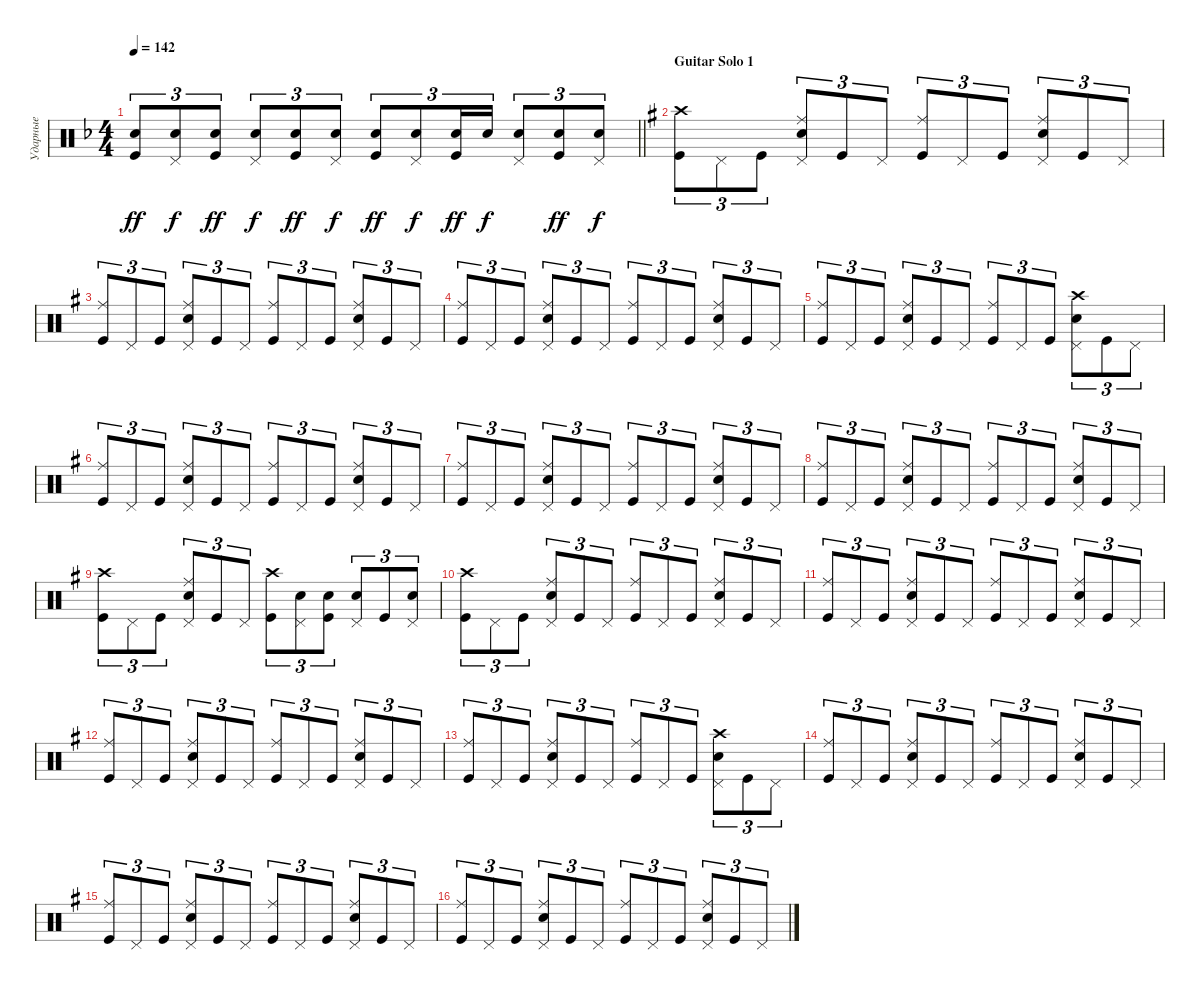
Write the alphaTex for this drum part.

\track ("Ударные" "Ударные") {instrument percussion}
\staff {score}
\articulation defaults
\ts (4 4)
\tempo 142
\clef neutral
\barLineRight lightlight
\ks dminor
("Kick (hit)" "Snare (hit) 2").8{tu (3 2) dy ff} ("Snare (hit) 2" "Pedal Hi-Hat (hit)").8{tu (3 2) dy f} ("Snare (hit) 2" "Kick (hit)").8{tu (3 2) dy ff} ("Snare (hit) 2" "Pedal Hi-Hat (hit)").8{tu (3 2) dy f} ("Snare (hit) 2" "Kick (hit)").8{tu (3 2) dy ff} ("Snare (hit) 2" "Pedal Hi-Hat (hit)").8{tu (3 2) dy f} ("Kick (hit)" "Snare (hit) 2").8{tu (3 2) dy ff} ("Snare (hit) 2" "Pedal Hi-Hat (hit)").8{tu (3 2) dy f} ("Snare (hit) 2" "Kick (hit)").16{tu (3 2) dy ff} "Snare (hit) 2".16{tu (3 2) dy f} ("Snare (hit) 2" "Pedal Hi-Hat (hit)").8{tu (3 2)} ("Snare (hit) 2" "Kick (hit)").8{tu (3 2) dy ff} ("Snare (hit) 2" "Pedal Hi-Hat (hit)").8{tu (3 2) dy f} |
\section ("" "Guitar Solo 1")
\ks eminor
("Kick (hit)" "Crash high (hit)").8{tu (3 2)} "Pedal Hi-Hat (hit)".8{tu (3 2)} "Kick (hit)".8{tu (3 2)} ("Snare (hit) 2" "Ride (middle)" "Pedal Hi-Hat (hit)").8{tu (3 2)} "Kick (hit)".8{tu (3 2)} "Pedal Hi-Hat (hit)".8{tu (3 2)} ("Kick (hit)" "Ride (middle)").8{tu (3 2)} "Pedal Hi-Hat (hit)".8{tu (3 2)} "Kick (hit)".8{tu (3 2)} ("Snare (hit) 2" "Ride (middle)" "Pedal Hi-Hat (hit)").8{tu (3 2)} "Kick (hit)".8{tu (3 2)} "Pedal Hi-Hat (hit)".8{tu (3 2)} |
("Kick (hit)" "Ride (middle)").8{tu (3 2)} "Pedal Hi-Hat (hit)".8{tu (3 2)} "Kick (hit)".8{tu (3 2)} ("Snare (hit) 2" "Ride (middle)" "Pedal Hi-Hat (hit)").8{tu (3 2)} "Kick (hit)".8{tu (3 2)} "Pedal Hi-Hat (hit)".8{tu (3 2)} ("Kick (hit)" "Ride (middle)").8{tu (3 2)} "Pedal Hi-Hat (hit)".8{tu (3 2)} "Kick (hit)".8{tu (3 2)} ("Snare (hit) 2" "Ride (middle)" "Pedal Hi-Hat (hit)").8{tu (3 2)} "Kick (hit)".8{tu (3 2)} "Pedal Hi-Hat (hit)".8{tu (3 2)} |
("Kick (hit)" "Ride (middle)").8{tu (3 2)} "Pedal Hi-Hat (hit)".8{tu (3 2)} "Kick (hit)".8{tu (3 2)} ("Snare (hit) 2" "Ride (middle)" "Pedal Hi-Hat (hit)").8{tu (3 2)} "Kick (hit)".8{tu (3 2)} "Pedal Hi-Hat (hit)".8{tu (3 2)} ("Kick (hit)" "Ride (middle)").8{tu (3 2)} "Pedal Hi-Hat (hit)".8{tu (3 2)} "Kick (hit)".8{tu (3 2)} ("Snare (hit) 2" "Ride (middle)" "Pedal Hi-Hat (hit)").8{tu (3 2)} "Kick (hit)".8{tu (3 2)} "Pedal Hi-Hat (hit)".8{tu (3 2)} |
("Kick (hit)" "Ride (middle)").8{tu (3 2)} "Pedal Hi-Hat (hit)".8{tu (3 2)} "Kick (hit)".8{tu (3 2)} ("Snare (hit) 2" "Ride (middle)" "Pedal Hi-Hat (hit)").8{tu (3 2)} "Kick (hit)".8{tu (3 2)} "Pedal Hi-Hat (hit)".8{tu (3 2)} ("Kick (hit)" "Ride (middle)").8{tu (3 2)} "Pedal Hi-Hat (hit)".8{tu (3 2)} "Kick (hit)".8{tu (3 2)} ("Snare (hit) 2" "Pedal Hi-Hat (hit)" "Crash high (hit)").8{tu (3 2)} "Kick (hit)".8{tu (3 2)} "Pedal Hi-Hat (hit)".8{tu (3 2)} |
("Kick (hit)" "Ride (middle)").8{tu (3 2)} "Pedal Hi-Hat (hit)".8{tu (3 2)} "Kick (hit)".8{tu (3 2)} ("Snare (hit) 2" "Ride (middle)" "Pedal Hi-Hat (hit)").8{tu (3 2)} "Kick (hit)".8{tu (3 2)} "Pedal Hi-Hat (hit)".8{tu (3 2)} ("Kick (hit)" "Ride (middle)").8{tu (3 2)} "Pedal Hi-Hat (hit)".8{tu (3 2)} "Kick (hit)".8{tu (3 2)} ("Snare (hit) 2" "Ride (middle)" "Pedal Hi-Hat (hit)").8{tu (3 2)} "Kick (hit)".8{tu (3 2)} "Pedal Hi-Hat (hit)".8{tu (3 2)} |
("Kick (hit)" "Ride (middle)").8{tu (3 2)} "Pedal Hi-Hat (hit)".8{tu (3 2)} "Kick (hit)".8{tu (3 2)} ("Snare (hit) 2" "Ride (middle)" "Pedal Hi-Hat (hit)").8{tu (3 2)} "Kick (hit)".8{tu (3 2)} "Pedal Hi-Hat (hit)".8{tu (3 2)} ("Kick (hit)" "Ride (middle)").8{tu (3 2)} "Pedal Hi-Hat (hit)".8{tu (3 2)} "Kick (hit)".8{tu (3 2)} ("Snare (hit) 2" "Ride (middle)" "Pedal Hi-Hat (hit)").8{tu (3 2)} "Kick (hit)".8{tu (3 2)} "Pedal Hi-Hat (hit)".8{tu (3 2)} |
("Kick (hit)" "Ride (middle)").8{tu (3 2)} "Pedal Hi-Hat (hit)".8{tu (3 2)} "Kick (hit)".8{tu (3 2)} ("Snare (hit) 2" "Ride (middle)" "Pedal Hi-Hat (hit)").8{tu (3 2)} "Kick (hit)".8{tu (3 2)} "Pedal Hi-Hat (hit)".8{tu (3 2)} ("Kick (hit)" "Ride (middle)").8{tu (3 2)} "Pedal Hi-Hat (hit)".8{tu (3 2)} "Kick (hit)".8{tu (3 2)} ("Snare (hit) 2" "Ride (middle)" "Pedal Hi-Hat (hit)").8{tu (3 2)} "Kick (hit)".8{tu (3 2)} "Pedal Hi-Hat (hit)".8{tu (3 2)} |
("Kick (hit)" "Crash high (hit)").8{tu (3 2)} "Pedal Hi-Hat (hit)".8{tu (3 2)} "Kick (hit)".8{tu (3 2)} ("Snare (hit) 2" "Ride (middle)" "Pedal Hi-Hat (hit)").8{tu (3 2)} "Kick (hit)".8{tu (3 2)} "Pedal Hi-Hat (hit)".8{tu (3 2)} ("Kick (hit)" "Crash high (hit)").8{tu (3 2)} ("Pedal Hi-Hat (hit)" "Snare (hit) 2").8{tu (3 2)} ("Kick (hit)" "Snare (hit) 2").8{tu (3 2)} ("Snare (hit) 2" "Pedal Hi-Hat (hit)").8{tu (3 2)} "Kick (hit)".8{tu (3 2)} ("Pedal Hi-Hat (hit)" "Snare (hit) 2").8{tu (3 2)} |
("Kick (hit)" "Crash high (hit)").8{tu (3 2)} "Pedal Hi-Hat (hit)".8{tu (3 2)} "Kick (hit)".8{tu (3 2)} ("Snare (hit) 2" "Ride (middle)" "Pedal Hi-Hat (hit)").8{tu (3 2)} "Kick (hit)".8{tu (3 2)} "Pedal Hi-Hat (hit)".8{tu (3 2)} ("Kick (hit)" "Ride (middle)").8{tu (3 2)} "Pedal Hi-Hat (hit)".8{tu (3 2)} "Kick (hit)".8{tu (3 2)} ("Snare (hit) 2" "Ride (middle)" "Pedal Hi-Hat (hit)").8{tu (3 2)} "Kick (hit)".8{tu (3 2)} "Pedal Hi-Hat (hit)".8{tu (3 2)} |
("Kick (hit)" "Ride (middle)").8{tu (3 2)} "Pedal Hi-Hat (hit)".8{tu (3 2)} "Kick (hit)".8{tu (3 2)} ("Snare (hit) 2" "Ride (middle)" "Pedal Hi-Hat (hit)").8{tu (3 2)} "Kick (hit)".8{tu (3 2)} "Pedal Hi-Hat (hit)".8{tu (3 2)} ("Kick (hit)" "Ride (middle)").8{tu (3 2)} "Pedal Hi-Hat (hit)".8{tu (3 2)} "Kick (hit)".8{tu (3 2)} ("Snare (hit) 2" "Ride (middle)" "Pedal Hi-Hat (hit)").8{tu (3 2)} "Kick (hit)".8{tu (3 2)} "Pedal Hi-Hat (hit)".8{tu (3 2)} |
("Kick (hit)" "Ride (middle)").8{tu (3 2)} "Pedal Hi-Hat (hit)".8{tu (3 2)} "Kick (hit)".8{tu (3 2)} ("Snare (hit) 2" "Ride (middle)" "Pedal Hi-Hat (hit)").8{tu (3 2)} "Kick (hit)".8{tu (3 2)} "Pedal Hi-Hat (hit)".8{tu (3 2)} ("Kick (hit)" "Ride (middle)").8{tu (3 2)} "Pedal Hi-Hat (hit)".8{tu (3 2)} "Kick (hit)".8{tu (3 2)} ("Snare (hit) 2" "Ride (middle)" "Pedal Hi-Hat (hit)").8{tu (3 2)} "Kick (hit)".8{tu (3 2)} "Pedal Hi-Hat (hit)".8{tu (3 2)} |
("Kick (hit)" "Ride (middle)").8{tu (3 2)} "Pedal Hi-Hat (hit)".8{tu (3 2)} "Kick (hit)".8{tu (3 2)} ("Snare (hit) 2" "Ride (middle)" "Pedal Hi-Hat (hit)").8{tu (3 2)} "Kick (hit)".8{tu (3 2)} "Pedal Hi-Hat (hit)".8{tu (3 2)} ("Kick (hit)" "Ride (middle)").8{tu (3 2)} "Pedal Hi-Hat (hit)".8{tu (3 2)} "Kick (hit)".8{tu (3 2)} ("Snare (hit) 2" "Pedal Hi-Hat (hit)" "Crash high (hit)").8{tu (3 2)} "Kick (hit)".8{tu (3 2)} "Pedal Hi-Hat (hit)".8{tu (3 2)} |
("Kick (hit)" "Ride (middle)").8{tu (3 2)} "Pedal Hi-Hat (hit)".8{tu (3 2)} "Kick (hit)".8{tu (3 2)} ("Snare (hit) 2" "Ride (middle)" "Pedal Hi-Hat (hit)").8{tu (3 2)} "Kick (hit)".8{tu (3 2)} "Pedal Hi-Hat (hit)".8{tu (3 2)} ("Kick (hit)" "Ride (middle)").8{tu (3 2)} "Pedal Hi-Hat (hit)".8{tu (3 2)} "Kick (hit)".8{tu (3 2)} ("Snare (hit) 2" "Ride (middle)" "Pedal Hi-Hat (hit)").8{tu (3 2)} "Kick (hit)".8{tu (3 2)} "Pedal Hi-Hat (hit)".8{tu (3 2)} |
("Kick (hit)" "Ride (middle)").8{tu (3 2)} "Pedal Hi-Hat (hit)".8{tu (3 2)} "Kick (hit)".8{tu (3 2)} ("Snare (hit) 2" "Ride (middle)" "Pedal Hi-Hat (hit)").8{tu (3 2)} "Kick (hit)".8{tu (3 2)} "Pedal Hi-Hat (hit)".8{tu (3 2)} ("Kick (hit)" "Ride (middle)").8{tu (3 2)} "Pedal Hi-Hat (hit)".8{tu (3 2)} "Kick (hit)".8{tu (3 2)} ("Snare (hit) 2" "Ride (middle)" "Pedal Hi-Hat (hit)").8{tu (3 2)} "Kick (hit)".8{tu (3 2)} "Pedal Hi-Hat (hit)".8{tu (3 2)} |
("Kick (hit)" "Ride (middle)").8{tu (3 2)} "Pedal Hi-Hat (hit)".8{tu (3 2)} "Kick (hit)".8{tu (3 2)} ("Snare (hit) 2" "Ride (middle)" "Pedal Hi-Hat (hit)").8{tu (3 2)} "Kick (hit)".8{tu (3 2)} "Pedal Hi-Hat (hit)".8{tu (3 2)} ("Kick (hit)" "Ride (middle)").8{tu (3 2)} "Pedal Hi-Hat (hit)".8{tu (3 2)} "Kick (hit)".8{tu (3 2)} ("Snare (hit) 2" "Ride (middle)" "Pedal Hi-Hat (hit)").8{tu (3 2)} "Kick (hit)".8{tu (3 2)} "Pedal Hi-Hat (hit)".8{tu (3 2)}
